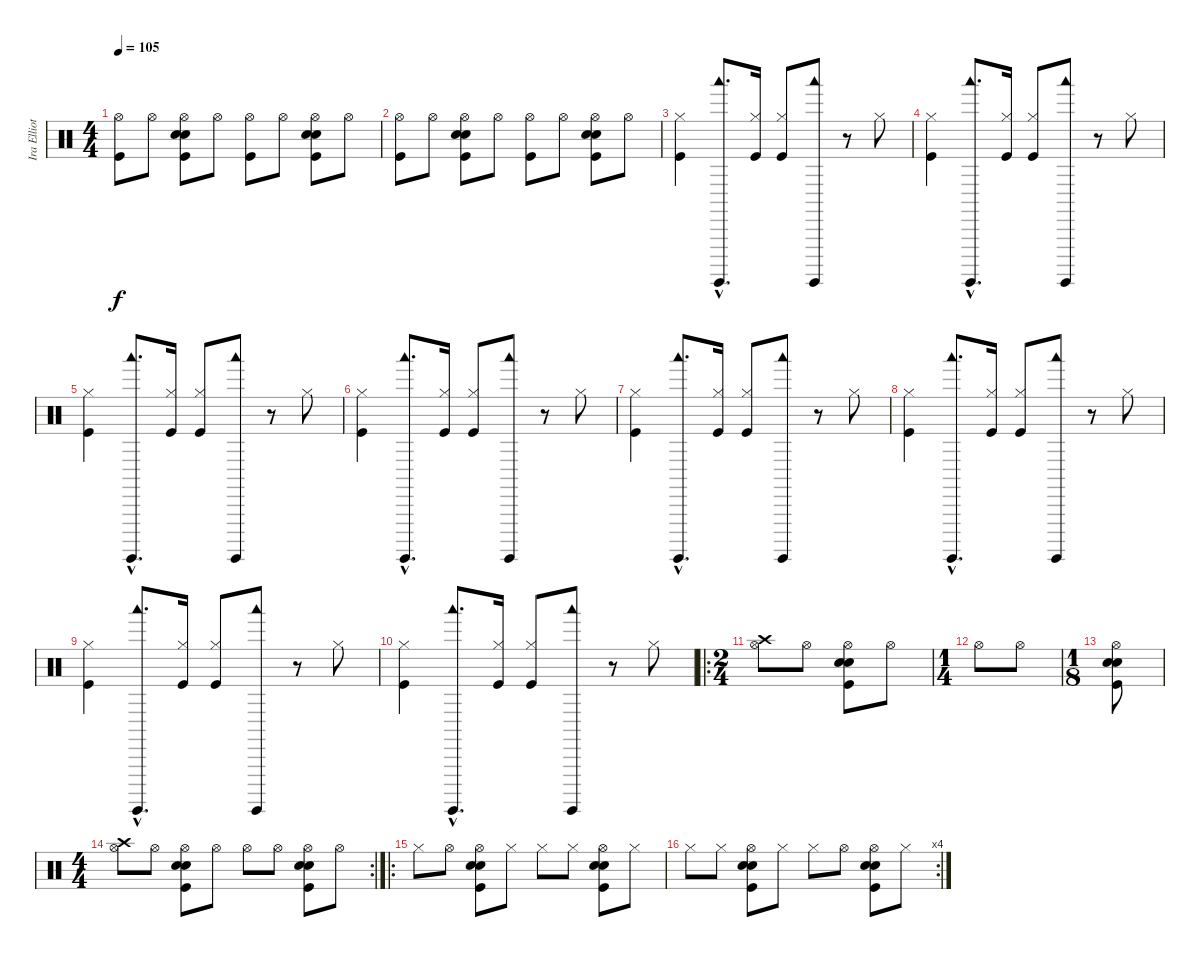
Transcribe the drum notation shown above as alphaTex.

\track ("Ira Elliot" "Ira Elliot") {instrument percussion}
\staff {score}
\articulation defaults
\ts (4 4)
\tempo 105
\clef neutral
\ks c
("Hi-Hat (open)" "Kick (hit)").8{dy f} "Hi-Hat (open)".8 ("Electric Snare (hit)" "Hi-Hat (open)" "Snare (hit) 2" "Kick (hit)").8 "Hi-Hat (open)".8 ("Hi-Hat (open)" "Kick (hit)").8 "Hi-Hat (open)".8 ("Electric Snare (hit)" "Hi-Hat (open)" "Snare (hit) 2" "Kick (hit)").8 "Hi-Hat (open)".8 |
("Hi-Hat (open)" "Kick (hit)").8 "Hi-Hat (open)".8 ("Electric Snare (hit)" "Hi-Hat (open)" "Snare (hit) 2" "Kick (hit)").8 "Hi-Hat (open)".8 ("Hi-Hat (open)" "Kick (hit)").8 "Hi-Hat (open)".8 ("Electric Snare (hit)" "Hi-Hat (open)" "Snare (hit) 2" "Kick (hit)").8 "Hi-Hat (open)".8 |
("Hi-Hat (closed)" "Kick (hit)").4 ("Woodblock low (hit)"{hac} "Surdo (hit)"{hac}).8{d} ("Hi-Hat (closed)" "Kick (hit)").16 ("Hi-Hat (closed)" "Kick (hit)").8 ("Woodblock low (hit)" "Surdo (hit)").8 r.8 "Hi-Hat (closed)".8 |
("Hi-Hat (closed)" "Kick (hit)").4 ("Woodblock low (hit)"{hac} "Surdo (hit)"{hac}).8{d} ("Hi-Hat (closed)" "Kick (hit)").16 ("Hi-Hat (closed)" "Kick (hit)").8 ("Woodblock low (hit)" "Surdo (hit)").8 r.8 "Hi-Hat (closed)".8 |
("Hi-Hat (closed)" "Kick (hit)").4 ("Woodblock low (hit)"{hac} "Surdo (hit)"{hac}).8{d} ("Hi-Hat (closed)" "Kick (hit)").16 ("Hi-Hat (closed)" "Kick (hit)").8 ("Woodblock low (hit)" "Surdo (hit)").8 r.8 "Hi-Hat (closed)".8 |
("Hi-Hat (closed)" "Kick (hit)").4 ("Woodblock low (hit)"{hac} "Surdo (hit)"{hac}).8{d} ("Hi-Hat (closed)" "Kick (hit)").16 ("Hi-Hat (closed)" "Kick (hit)").8 ("Woodblock low (hit)" "Surdo (hit)").8 r.8 "Hi-Hat (closed)".8 |
("Hi-Hat (closed)" "Kick (hit)").4 ("Woodblock low (hit)"{hac} "Surdo (hit)"{hac}).8{d} ("Hi-Hat (closed)" "Kick (hit)").16 ("Hi-Hat (closed)" "Kick (hit)").8 ("Woodblock low (hit)" "Surdo (hit)").8 r.8 "Hi-Hat (closed)".8 |
("Hi-Hat (closed)" "Kick (hit)").4 ("Woodblock low (hit)"{hac} "Surdo (hit)"{hac}).8{d} ("Hi-Hat (closed)" "Kick (hit)").16 ("Hi-Hat (closed)" "Kick (hit)").8 ("Woodblock low (hit)" "Surdo (hit)").8 r.8 "Hi-Hat (closed)".8 |
("Hi-Hat (closed)" "Kick (hit)").4 ("Woodblock low (hit)"{hac} "Surdo (hit)"{hac}).8{d} ("Hi-Hat (closed)" "Kick (hit)").16 ("Hi-Hat (closed)" "Kick (hit)").8 ("Woodblock low (hit)" "Surdo (hit)").8 r.8 "Hi-Hat (closed)".8 |
("Hi-Hat (closed)" "Kick (hit)").4 ("Woodblock low (hit)"{hac} "Surdo (hit)"{hac}).8{d} ("Hi-Hat (closed)" "Kick (hit)").16 ("Hi-Hat (closed)" "Kick (hit)").8 ("Woodblock low (hit)" "Surdo (hit)").8 r.8 "Hi-Hat (closed)".8 |
\ro
\ts (2 4)
("Crash high (hit)" "Hi-Hat (open)").8 "Hi-Hat (open)".8 ("Electric Snare (hit)" "Snare (hit) 2" "Kick (hit)" "Hi-Hat (open)").8 "Hi-Hat (open)".8 |
\ts (1 4)
"Hi-Hat (open)".8 "Hi-Hat (open)".8 |
\ts (1 8)
("Snare (hit) 2" "Electric Snare (hit)" "Kick (hit)" "Hi-Hat (open)").8 |
\rc 2
\ts (4 4)
("Crash high (hit)" "Hi-Hat (open)").8 "Hi-Hat (open)".8 ("Electric Snare (hit)" "Snare (hit) 2" "Kick (hit)" "Hi-Hat (open)").8 "Hi-Hat (open)".8 "Hi-Hat (open)".8 "Hi-Hat (open)".8 ("Electric Snare (hit)" "Snare (hit) 2" "Kick (hit)" "Hi-Hat (open)").8 "Hi-Hat (open)".8 |
\ro "Hi-Hat (closed)".8 "Hi-Hat (open)".8
("Electric Snare (hit)" "Hi-Hat (open)" "Snare (hit) 2" "Kick (hit)").8 "Hi-Hat (closed)".8 "Hi-Hat (closed)".8 "Hi-Hat (closed)".8 ("Electric Snare (hit)" "Hi-Hat (open)" "Snare (hit) 2" "Kick (hit)").8 "Hi-Hat (closed)".8 |
\rc 4 "Hi-Hat (closed)".8 "Hi-Hat (closed)".8
("Electric Snare (hit)" "Snare (hit) 2" "Hi-Hat (open)" "Kick (hit)").8 "Hi-Hat (closed)".8 "Hi-Hat (closed)".8 "Hi-Hat (open)".8 ("Electric Snare (hit)" "Snare (hit) 2" "Hi-Hat (open)" "Kick (hit)").8 "Hi-Hat (closed)".8
